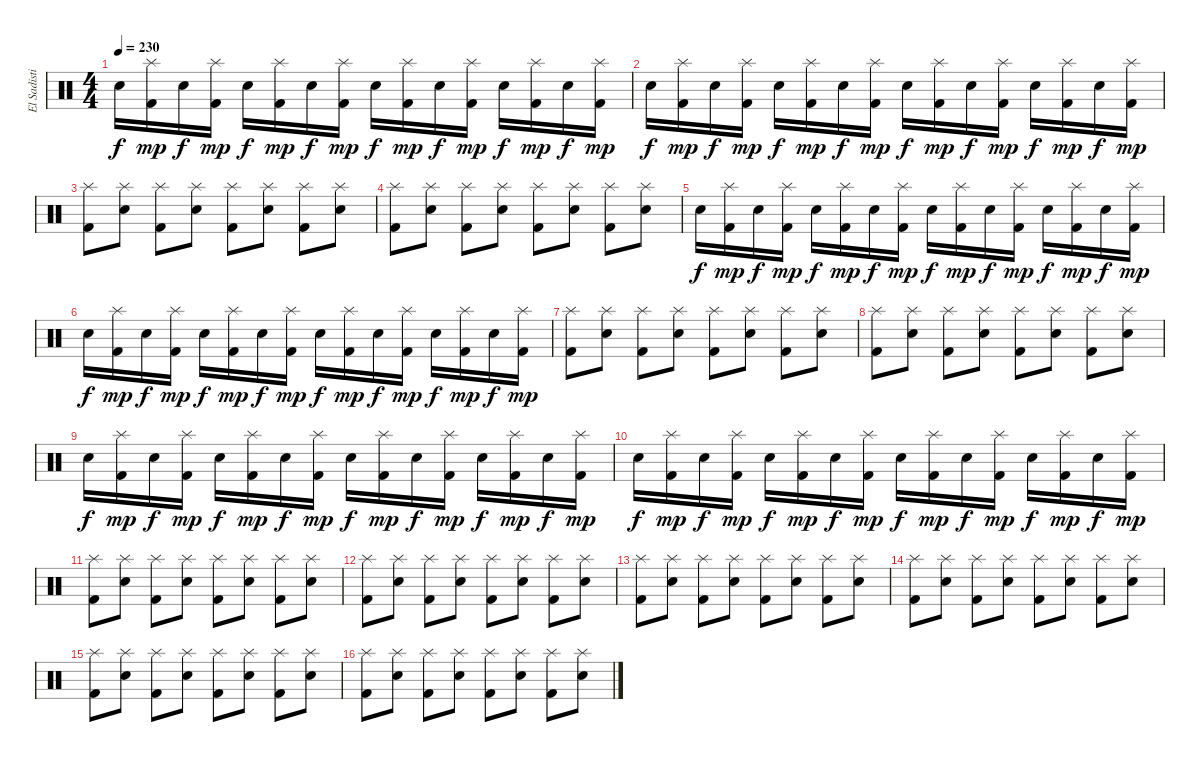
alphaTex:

\track ("El Sadistico" "El Sadisti") {instrument percussion}
\staff {score}
\articulation defaults
\ts (4 4)
\tempo 230
\clef neutral
\ks c "Electric Snare (hit)".16{dy f}
("Splash (hit)" "Kick (hit) 2").16{dy mp} "Electric Snare (hit)".16{dy f} ("Splash (hit)" "Kick (hit) 2").16{dy mp} "Electric Snare (hit)".16{dy f} ("Splash (hit)" "Kick (hit) 2").16{dy mp} "Electric Snare (hit)".16{dy f} ("Splash (hit)" "Kick (hit) 2").16{dy mp} "Electric Snare (hit)".16{dy f} ("Splash (hit)" "Kick (hit) 2").16{dy mp} "Electric Snare (hit)".16{dy f} ("Splash (hit)" "Kick (hit) 2").16{dy mp} "Electric Snare (hit)".16{dy f} ("Splash (hit)" "Kick (hit) 2").16{dy mp} "Electric Snare (hit)".16{dy f} ("Splash (hit)" "Kick (hit) 2").16{dy mp} |
"Electric Snare (hit)".16{dy f} ("Splash (hit)" "Kick (hit) 2").16{dy mp} "Electric Snare (hit)".16{dy f} ("Splash (hit)" "Kick (hit) 2").16{dy mp} "Electric Snare (hit)".16{dy f} ("Splash (hit)" "Kick (hit) 2").16{dy mp} "Electric Snare (hit)".16{dy f} ("Splash (hit)" "Kick (hit) 2").16{dy mp} "Electric Snare (hit)".16{dy f} ("Splash (hit)" "Kick (hit) 2").16{dy mp} "Electric Snare (hit)".16{dy f} ("Splash (hit)" "Kick (hit) 2").16{dy mp} "Electric Snare (hit)".16{dy f} ("Splash (hit)" "Kick (hit) 2").16{dy mp} "Electric Snare (hit)".16{dy f} ("Splash (hit)" "Kick (hit) 2").16{dy mp} |
("Splash (hit)" "Kick (hit) 2").8 ("Splash (hit)" "Electric Snare (hit)").8 ("Splash (hit)" "Kick (hit) 2").8 ("Splash (hit)" "Electric Snare (hit)").8 ("Splash (hit)" "Kick (hit) 2").8 ("Splash (hit)" "Electric Snare (hit)").8 ("Splash (hit)" "Kick (hit) 2").8 ("Splash (hit)" "Electric Snare (hit)").8 |
("Splash (hit)" "Kick (hit) 2").8 ("Splash (hit)" "Electric Snare (hit)").8 ("Splash (hit)" "Kick (hit) 2").8 ("Splash (hit)" "Electric Snare (hit)").8 ("Splash (hit)" "Kick (hit) 2").8 ("Splash (hit)" "Electric Snare (hit)").8 ("Splash (hit)" "Kick (hit) 2").8 ("Splash (hit)" "Electric Snare (hit)").8 |
"Electric Snare (hit)".16{dy f} ("Splash (hit)" "Kick (hit) 2").16{dy mp} "Electric Snare (hit)".16{dy f} ("Splash (hit)" "Kick (hit) 2").16{dy mp} "Electric Snare (hit)".16{dy f} ("Splash (hit)" "Kick (hit) 2").16{dy mp} "Electric Snare (hit)".16{dy f} ("Splash (hit)" "Kick (hit) 2").16{dy mp} "Electric Snare (hit)".16{dy f} ("Splash (hit)" "Kick (hit) 2").16{dy mp} "Electric Snare (hit)".16{dy f} ("Splash (hit)" "Kick (hit) 2").16{dy mp} "Electric Snare (hit)".16{dy f} ("Splash (hit)" "Kick (hit) 2").16{dy mp} "Electric Snare (hit)".16{dy f} ("Splash (hit)" "Kick (hit) 2").16{dy mp} |
"Electric Snare (hit)".16{dy f} ("Splash (hit)" "Kick (hit) 2").16{dy mp} "Electric Snare (hit)".16{dy f} ("Splash (hit)" "Kick (hit) 2").16{dy mp} "Electric Snare (hit)".16{dy f} ("Splash (hit)" "Kick (hit) 2").16{dy mp} "Electric Snare (hit)".16{dy f} ("Splash (hit)" "Kick (hit) 2").16{dy mp} "Electric Snare (hit)".16{dy f} ("Splash (hit)" "Kick (hit) 2").16{dy mp} "Electric Snare (hit)".16{dy f} ("Splash (hit)" "Kick (hit) 2").16{dy mp} "Electric Snare (hit)".16{dy f} ("Splash (hit)" "Kick (hit) 2").16{dy mp} "Electric Snare (hit)".16{dy f} ("Splash (hit)" "Kick (hit) 2").16{dy mp} |
("Splash (hit)" "Kick (hit) 2").8 ("Splash (hit)" "Electric Snare (hit)").8 ("Splash (hit)" "Kick (hit) 2").8 ("Splash (hit)" "Electric Snare (hit)").8 ("Splash (hit)" "Kick (hit) 2").8 ("Splash (hit)" "Electric Snare (hit)").8 ("Splash (hit)" "Kick (hit) 2").8 ("Splash (hit)" "Electric Snare (hit)").8 |
("Splash (hit)" "Kick (hit) 2").8 ("Splash (hit)" "Electric Snare (hit)").8 ("Splash (hit)" "Kick (hit) 2").8 ("Splash (hit)" "Electric Snare (hit)").8 ("Splash (hit)" "Kick (hit) 2").8 ("Splash (hit)" "Electric Snare (hit)").8 ("Splash (hit)" "Kick (hit) 2").8 ("Splash (hit)" "Electric Snare (hit)").8 |
"Electric Snare (hit)".16{dy f} ("Splash (hit)" "Kick (hit) 2").16{dy mp} "Electric Snare (hit)".16{dy f} ("Splash (hit)" "Kick (hit) 2").16{dy mp} "Electric Snare (hit)".16{dy f} ("Splash (hit)" "Kick (hit) 2").16{dy mp} "Electric Snare (hit)".16{dy f} ("Splash (hit)" "Kick (hit) 2").16{dy mp} "Electric Snare (hit)".16{dy f} ("Splash (hit)" "Kick (hit) 2").16{dy mp} "Electric Snare (hit)".16{dy f} ("Splash (hit)" "Kick (hit) 2").16{dy mp} "Electric Snare (hit)".16{dy f} ("Splash (hit)" "Kick (hit) 2").16{dy mp} "Electric Snare (hit)".16{dy f} ("Splash (hit)" "Kick (hit) 2").16{dy mp} |
"Electric Snare (hit)".16{dy f} ("Splash (hit)" "Kick (hit) 2").16{dy mp} "Electric Snare (hit)".16{dy f} ("Splash (hit)" "Kick (hit) 2").16{dy mp} "Electric Snare (hit)".16{dy f} ("Splash (hit)" "Kick (hit) 2").16{dy mp} "Electric Snare (hit)".16{dy f} ("Splash (hit)" "Kick (hit) 2").16{dy mp} "Electric Snare (hit)".16{dy f} ("Splash (hit)" "Kick (hit) 2").16{dy mp} "Electric Snare (hit)".16{dy f} ("Splash (hit)" "Kick (hit) 2").16{dy mp} "Electric Snare (hit)".16{dy f} ("Splash (hit)" "Kick (hit) 2").16{dy mp} "Electric Snare (hit)".16{dy f} ("Splash (hit)" "Kick (hit) 2").16{dy mp} |
("Splash (hit)" "Kick (hit) 2").8 ("Splash (hit)" "Electric Snare (hit)").8 ("Splash (hit)" "Kick (hit) 2").8 ("Splash (hit)" "Electric Snare (hit)").8 ("Splash (hit)" "Kick (hit) 2").8 ("Splash (hit)" "Electric Snare (hit)").8 ("Splash (hit)" "Kick (hit) 2").8 ("Splash (hit)" "Electric Snare (hit)").8 |
("Splash (hit)" "Kick (hit) 2").8 ("Splash (hit)" "Electric Snare (hit)").8 ("Splash (hit)" "Kick (hit) 2").8 ("Splash (hit)" "Electric Snare (hit)").8 ("Splash (hit)" "Kick (hit) 2").8 ("Splash (hit)" "Electric Snare (hit)").8 ("Splash (hit)" "Kick (hit) 2").8 ("Splash (hit)" "Electric Snare (hit)").8 |
("Splash (hit)" "Kick (hit) 2").8 ("Splash (hit)" "Electric Snare (hit)").8 ("Splash (hit)" "Kick (hit) 2").8 ("Splash (hit)" "Electric Snare (hit)").8 ("Splash (hit)" "Kick (hit) 2").8 ("Splash (hit)" "Electric Snare (hit)").8 ("Splash (hit)" "Kick (hit) 2").8 ("Splash (hit)" "Electric Snare (hit)").8 |
("Splash (hit)" "Kick (hit) 2").8 ("Splash (hit)" "Electric Snare (hit)").8 ("Splash (hit)" "Kick (hit) 2").8 ("Splash (hit)" "Electric Snare (hit)").8 ("Splash (hit)" "Kick (hit) 2").8 ("Splash (hit)" "Electric Snare (hit)").8 ("Splash (hit)" "Kick (hit) 2").8 ("Splash (hit)" "Electric Snare (hit)").8 |
("Splash (hit)" "Kick (hit) 2").8 ("Splash (hit)" "Electric Snare (hit)").8 ("Splash (hit)" "Kick (hit) 2").8 ("Splash (hit)" "Electric Snare (hit)").8 ("Splash (hit)" "Kick (hit) 2").8 ("Splash (hit)" "Electric Snare (hit)").8 ("Splash (hit)" "Kick (hit) 2").8 ("Splash (hit)" "Electric Snare (hit)").8 |
("Splash (hit)" "Kick (hit) 2").8 ("Splash (hit)" "Electric Snare (hit)").8 ("Splash (hit)" "Kick (hit) 2").8 ("Splash (hit)" "Electric Snare (hit)").8 ("Splash (hit)" "Kick (hit) 2").8 ("Splash (hit)" "Electric Snare (hit)").8 ("Splash (hit)" "Kick (hit) 2").8 ("Splash (hit)" "Electric Snare (hit)").8
